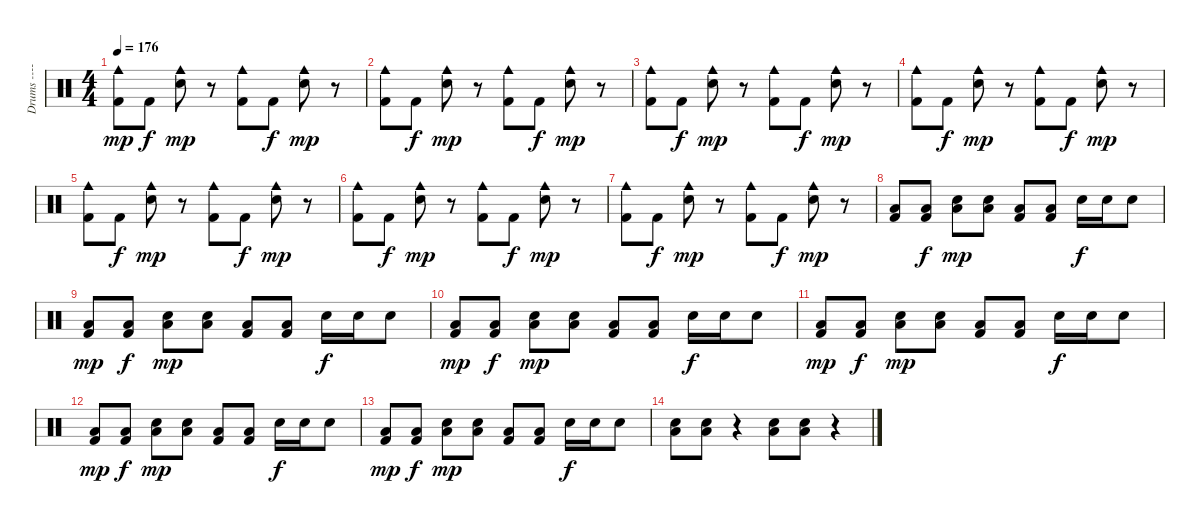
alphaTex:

\track ("Drums ----- Larry Mullen Junior" "Drums ----") {instrument percussion}
\staff {score}
\articulation defaults
\ts (4 4)
\tempo 176
\clef neutral
\ks c
("Kick (hit) 2" "Cowbell medium (hit)").8{dy mp} "Kick (hit) 2".8{dy f} ("Electric Snare (hit)" "Cowbell medium (hit)").8{dy mp} r.8 ("Kick (hit) 2" "Cowbell medium (hit)").8 "Kick (hit) 2".8{dy f} ("Electric Snare (hit)" "Cowbell medium (hit)").8{dy mp} r.8 |
("Kick (hit) 2" "Cowbell medium (hit)").8 "Kick (hit) 2".8{dy f} ("Electric Snare (hit)" "Cowbell medium (hit)").8{dy mp} r.8 ("Kick (hit) 2" "Cowbell medium (hit)").8 "Kick (hit) 2".8{dy f} ("Electric Snare (hit)" "Cowbell medium (hit)").8{dy mp} r.8 |
("Kick (hit) 2" "Cowbell medium (hit)").8 "Kick (hit) 2".8{dy f} ("Electric Snare (hit)" "Cowbell medium (hit)").8{dy mp} r.8 ("Kick (hit) 2" "Cowbell medium (hit)").8 "Kick (hit) 2".8{dy f} ("Electric Snare (hit)" "Cowbell medium (hit)").8{dy mp} r.8 |
("Kick (hit) 2" "Cowbell medium (hit)").8 "Kick (hit) 2".8{dy f} ("Electric Snare (hit)" "Cowbell medium (hit)").8{dy mp} r.8 ("Kick (hit) 2" "Cowbell medium (hit)").8 "Kick (hit) 2".8{dy f} ("Electric Snare (hit)" "Cowbell medium (hit)").8{dy mp} r.8 |
("Kick (hit) 2" "Cowbell medium (hit)").8 "Kick (hit) 2".8{dy f} ("Electric Snare (hit)" "Cowbell medium (hit)").8{dy mp} r.8 ("Kick (hit) 2" "Cowbell medium (hit)").8 "Kick (hit) 2".8{dy f} ("Electric Snare (hit)" "Cowbell medium (hit)").8{dy mp} r.8 |
("Kick (hit) 2" "Cowbell medium (hit)").8 "Kick (hit) 2".8{dy f} ("Electric Snare (hit)" "Cowbell medium (hit)").8{dy mp} r.8 ("Kick (hit) 2" "Cowbell medium (hit)").8 "Kick (hit) 2".8{dy f} ("Electric Snare (hit)" "Cowbell medium (hit)").8{dy mp} r.8 |
("Kick (hit) 2" "Cowbell medium (hit)").8 "Kick (hit) 2".8{dy f} ("Electric Snare (hit)" "Cowbell medium (hit)").8{dy mp} r.8 ("Kick (hit) 2" "Cowbell medium (hit)").8 "Kick (hit) 2".8{dy f} ("Electric Snare (hit)" "Cowbell medium (hit)").8{dy mp} r.8 |
("Kick (hit) 2" "Low Floor Tom (hit)").8 ("Kick (hit) 2" "Low Floor Tom (hit)").8{dy f} ("Electric Snare (hit)" "Low Floor Tom (hit)").8{dy mp} ("Electric Snare (hit)" "Low Floor Tom (hit)").8 ("Kick (hit) 2" "Low Floor Tom (hit)").8 ("Kick (hit) 2" "Low Floor Tom (hit)").8 "Electric Snare (hit)".16{dy f} "Electric Snare (hit)".16 "Electric Snare (hit)".8 |
("Kick (hit) 2" "Low Floor Tom (hit)").8{dy mp} ("Kick (hit) 2" "Low Floor Tom (hit)").8{dy f} ("Electric Snare (hit)" "Low Floor Tom (hit)").8{dy mp} ("Electric Snare (hit)" "Low Floor Tom (hit)").8 ("Kick (hit) 2" "Low Floor Tom (hit)").8 ("Kick (hit) 2" "Low Floor Tom (hit)").8 "Electric Snare (hit)".16{dy f} "Electric Snare (hit)".16 "Electric Snare (hit)".8 |
("Kick (hit) 2" "Low Floor Tom (hit)").8{dy mp} ("Kick (hit) 2" "Low Floor Tom (hit)").8{dy f} ("Electric Snare (hit)" "Low Floor Tom (hit)").8{dy mp} ("Electric Snare (hit)" "Low Floor Tom (hit)").8 ("Kick (hit) 2" "Low Floor Tom (hit)").8 ("Kick (hit) 2" "Low Floor Tom (hit)").8 "Electric Snare (hit)".16{dy f} "Electric Snare (hit)".16 "Electric Snare (hit)".8 |
("Kick (hit) 2" "Low Floor Tom (hit)").8{dy mp} ("Kick (hit) 2" "Low Floor Tom (hit)").8{dy f} ("Electric Snare (hit)" "Low Floor Tom (hit)").8{dy mp} ("Electric Snare (hit)" "Low Floor Tom (hit)").8 ("Kick (hit) 2" "Low Floor Tom (hit)").8 ("Kick (hit) 2" "Low Floor Tom (hit)").8 "Electric Snare (hit)".16{dy f} "Electric Snare (hit)".16 "Electric Snare (hit)".8 |
("Kick (hit) 2" "Low Floor Tom (hit)").8{dy mp} ("Kick (hit) 2" "Low Floor Tom (hit)").8{dy f} ("Electric Snare (hit)" "Low Floor Tom (hit)").8{dy mp} ("Electric Snare (hit)" "Low Floor Tom (hit)").8 ("Kick (hit) 2" "Low Floor Tom (hit)").8 ("Kick (hit) 2" "Low Floor Tom (hit)").8 "Electric Snare (hit)".16{dy f} "Electric Snare (hit)".16 "Electric Snare (hit)".8 |
("Kick (hit) 2" "Low Floor Tom (hit)").8{dy mp} ("Kick (hit) 2" "Low Floor Tom (hit)").8{dy f} ("Electric Snare (hit)" "Low Floor Tom (hit)").8{dy mp} ("Electric Snare (hit)" "Low Floor Tom (hit)").8 ("Kick (hit) 2" "Low Floor Tom (hit)").8 ("Kick (hit) 2" "Low Floor Tom (hit)").8 "Electric Snare (hit)".16{dy f} "Electric Snare (hit)".16 "Electric Snare (hit)".8 |
("Electric Snare (hit)" "Low Floor Tom (hit)").8 ("Electric Snare (hit)" "Low Floor Tom (hit)").8 r.4 ("Electric Snare (hit)" "Low Floor Tom (hit)").8 ("Electric Snare (hit)" "Low Floor Tom (hit)").8 r.4
